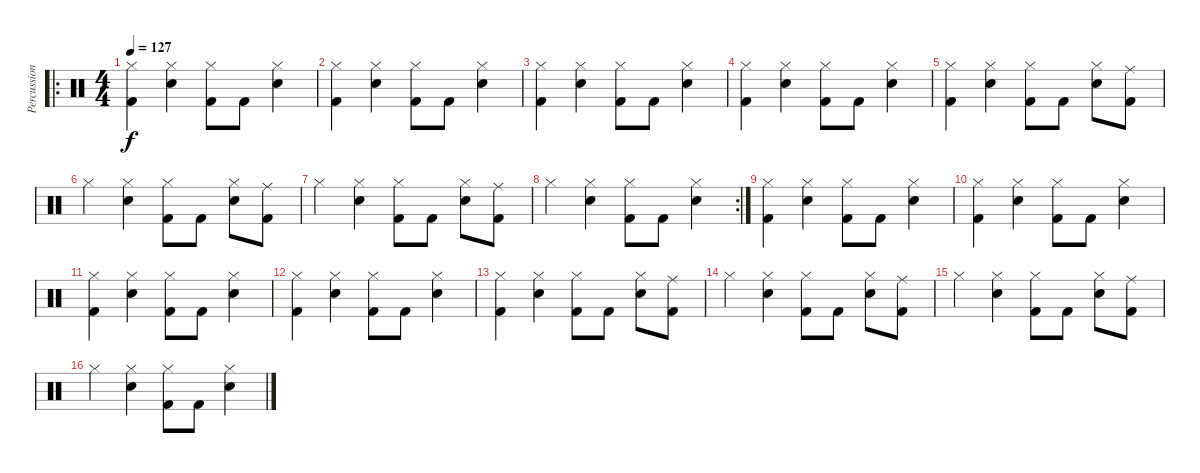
\track ("Percussions" "Percussion") {instrument percussion}
\staff {score}
\articulation defaults
\ro
\ts (4 4)
\tempo 127
\clef neutral
\ks c
("Kick (hit) 2" "Hi-Hat (closed)").4{dy f} ("Snare (hit) 2" "Hi-Hat (closed)").4 ("Kick (hit) 2" "Hi-Hat (closed)").8 "Kick (hit) 2".8 ("Snare (hit) 2" "Hi-Hat (closed)").4 |
("Kick (hit) 2" "Hi-Hat (closed)").4 ("Snare (hit) 2" "Hi-Hat (closed)").4 ("Kick (hit) 2" "Hi-Hat (closed)").8 "Kick (hit) 2".8 ("Snare (hit) 2" "Hi-Hat (closed)").4 |
("Kick (hit) 2" "Hi-Hat (closed)").4 ("Snare (hit) 2" "Hi-Hat (closed)").4 ("Kick (hit) 2" "Hi-Hat (closed)").8 "Kick (hit) 2".8 ("Snare (hit) 2" "Hi-Hat (closed)").4 |
("Kick (hit) 2" "Hi-Hat (closed)").4 ("Snare (hit) 2" "Hi-Hat (closed)").4 ("Kick (hit) 2" "Hi-Hat (closed)").8 "Kick (hit) 2".8 ("Snare (hit) 2" "Hi-Hat (closed)").4 |
("Kick (hit) 2" "Hi-Hat (closed)").4 ("Snare (hit) 2" "Hi-Hat (closed)").4 ("Kick (hit) 2" "Hi-Hat (closed)").8 "Kick (hit) 2".8 ("Snare (hit) 2" "Hi-Hat (closed)").8 ("Kick (hit) 2" "Ride (middle)").8 |
"Hi-Hat (closed)".4 ("Snare (hit) 2" "Hi-Hat (closed)").4 ("Kick (hit) 2" "Hi-Hat (closed)").8 "Kick (hit) 2".8 ("Snare (hit) 2" "Hi-Hat (closed)").8 ("Kick (hit) 2" "Ride (middle)").8 |
"Hi-Hat (closed)".4 ("Snare (hit) 2" "Hi-Hat (closed)").4 ("Kick (hit) 2" "Hi-Hat (closed)").8 "Kick (hit) 2".8 ("Snare (hit) 2" "Hi-Hat (closed)").8 ("Kick (hit) 2" "Ride (middle)").8 |
\rc 2 "Hi-Hat (closed)".4
("Snare (hit) 2" "Hi-Hat (closed)").4 ("Kick (hit) 2" "Hi-Hat (closed)").8 "Kick (hit) 2".8 ("Snare (hit) 2" "Hi-Hat (closed)").4 |
("Kick (hit) 2" "Hi-Hat (closed)").4 ("Snare (hit) 2" "Hi-Hat (closed)").4 ("Kick (hit) 2" "Hi-Hat (closed)").8 "Kick (hit) 2".8 ("Snare (hit) 2" "Hi-Hat (closed)").4 |
("Kick (hit) 2" "Hi-Hat (closed)").4 ("Snare (hit) 2" "Hi-Hat (closed)").4 ("Kick (hit) 2" "Hi-Hat (closed)").8 "Kick (hit) 2".8 ("Snare (hit) 2" "Hi-Hat (closed)").4 |
("Kick (hit) 2" "Hi-Hat (closed)").4 ("Snare (hit) 2" "Hi-Hat (closed)").4 ("Kick (hit) 2" "Hi-Hat (closed)").8 "Kick (hit) 2".8 ("Snare (hit) 2" "Hi-Hat (closed)").4 |
("Kick (hit) 2" "Hi-Hat (closed)").4 ("Snare (hit) 2" "Hi-Hat (closed)").4 ("Kick (hit) 2" "Hi-Hat (closed)").8 "Kick (hit) 2".8 ("Snare (hit) 2" "Hi-Hat (closed)").4 |
("Kick (hit) 2" "Hi-Hat (closed)").4 ("Snare (hit) 2" "Hi-Hat (closed)").4 ("Kick (hit) 2" "Hi-Hat (closed)").8 "Kick (hit) 2".8 ("Snare (hit) 2" "Hi-Hat (closed)").8 ("Kick (hit) 2" "Ride (middle)").8 |
"Hi-Hat (closed)".4 ("Snare (hit) 2" "Hi-Hat (closed)").4 ("Kick (hit) 2" "Hi-Hat (closed)").8 "Kick (hit) 2".8 ("Snare (hit) 2" "Hi-Hat (closed)").8 ("Kick (hit) 2" "Ride (middle)").8 |
"Hi-Hat (closed)".4 ("Snare (hit) 2" "Hi-Hat (closed)").4 ("Kick (hit) 2" "Hi-Hat (closed)").8 "Kick (hit) 2".8 ("Snare (hit) 2" "Hi-Hat (closed)").8 ("Kick (hit) 2" "Ride (middle)").8 |
"Hi-Hat (closed)".4 ("Snare (hit) 2" "Hi-Hat (closed)").4 ("Kick (hit) 2" "Hi-Hat (closed)").8 "Kick (hit) 2".8 ("Snare (hit) 2" "Hi-Hat (closed)").4
